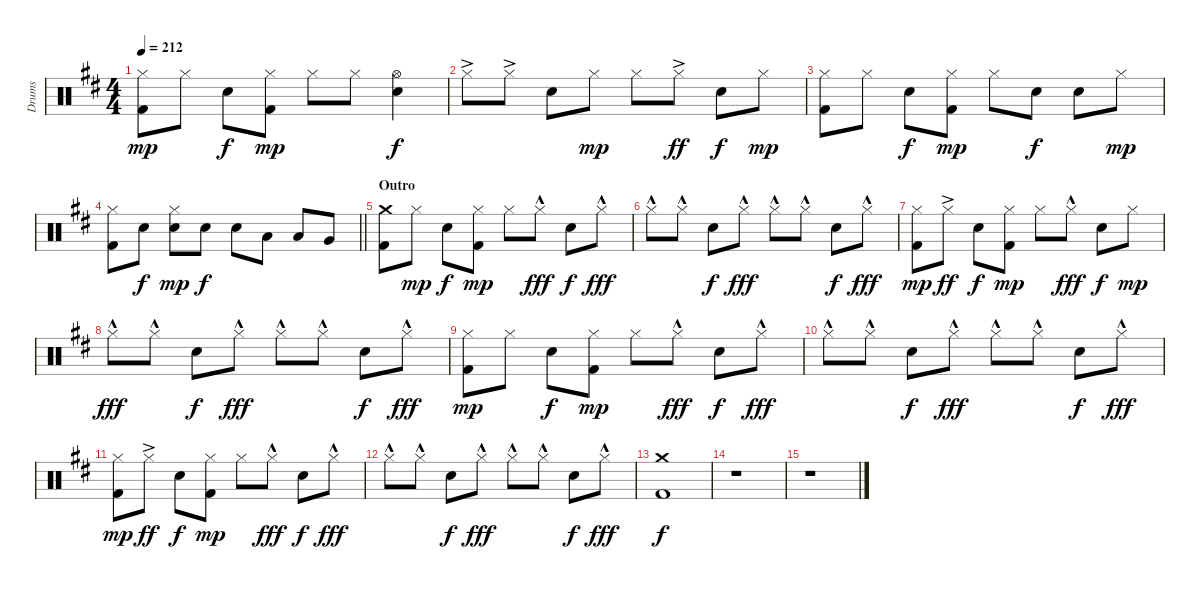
\track ("Drums" "Drums") {instrument percussion}
\staff {score}
\articulation defaults
\ts (4 4)
\tempo 212
\clef neutral
\ks d
("Hi-Hat (closed)" "Kick (hit) 2").8{dy mp} "Hi-Hat (closed)".8 "Electric Snare (hit)".8{dy f} ("Hi-Hat (closed)" "Kick (hit) 2").8{dy mp} "Hi-Hat (closed)".8 "Hi-Hat (closed)".8 ("Hi-Hat (open)" "Electric Snare (hit)").4{dy f} |
"Hi-Hat (closed)"{ac}.8 "Hi-Hat (closed)"{ac}.8 "Electric Snare (hit)".8 "Hi-Hat (closed)".8{dy mp} "Hi-Hat (closed)".8 "Hi-Hat (closed)"{ac}.8{dy ff} "Electric Snare (hit)".8{dy f} "Hi-Hat (closed)".8{dy mp} |
("Hi-Hat (closed)" "Kick (hit) 2").8 "Hi-Hat (closed)".8 "Electric Snare (hit)".8{dy f} ("Hi-Hat (closed)" "Kick (hit) 2").8{dy mp} "Hi-Hat (closed)".8 "Electric Snare (hit)".8{dy f} "Electric Snare (hit)".8 "Hi-Hat (closed)".8{dy mp} |
\barLineRight lightlight
("Hi-Hat (closed)" "Kick (hit) 2").8 "Electric Snare (hit)".8{dy f} ("Hi-Hat (closed)" "Electric Snare (hit)").8{dy mp} "Electric Snare (hit)".8{dy f} "Electric Snare (hit)".8 "Low Tom (hit)".8 "Low Tom (hit)".8 "Very Low Tom (hit)".8 |
\section ("" "Outro")
("Crash medium (hit)" "Kick (hit) 2").8 "Hi-Hat (closed)".8{dy mp} "Electric Snare (hit)".8{dy f} ("Hi-Hat (closed)" "Kick (hit) 2").8{dy mp} "Hi-Hat (closed)".8 "Hi-Hat (closed)"{hac}.8{dy fff} "Electric Snare (hit)".8{dy f} "Hi-Hat (closed)"{hac}.8{dy fff} |
"Hi-Hat (closed)"{hac}.8 "Hi-Hat (closed)"{hac}.8 "Electric Snare (hit)".8{dy f} "Hi-Hat (closed)"{hac}.8{dy fff} "Hi-Hat (closed)"{hac}.8 "Hi-Hat (closed)"{hac}.8 "Electric Snare (hit)".8{dy f} "Hi-Hat (closed)"{hac}.8{dy fff} |
("Hi-Hat (closed)" "Kick (hit) 2").8{dy mp} "Hi-Hat (closed)"{ac}.8{dy ff} "Electric Snare (hit)".8{dy f} ("Hi-Hat (closed)" "Kick (hit) 2").8{dy mp} "Hi-Hat (closed)".8 "Hi-Hat (closed)"{hac}.8{dy fff} "Electric Snare (hit)".8{dy f} "Hi-Hat (closed)".8{dy mp} |
"Hi-Hat (closed)"{hac}.8{dy fff} "Hi-Hat (closed)"{hac}.8 "Electric Snare (hit)".8{dy f} "Hi-Hat (closed)"{hac}.8{dy fff} "Hi-Hat (closed)"{hac}.8 "Hi-Hat (closed)"{hac}.8 "Electric Snare (hit)".8{dy f} "Hi-Hat (closed)"{hac}.8{dy fff} |
("Hi-Hat (closed)" "Kick (hit) 2").8{dy mp} "Hi-Hat (closed)".8 "Electric Snare (hit)".8{dy f} ("Hi-Hat (closed)" "Kick (hit) 2").8{dy mp} "Hi-Hat (closed)".8 "Hi-Hat (closed)"{hac}.8{dy fff} "Electric Snare (hit)".8{dy f} "Hi-Hat (closed)"{hac}.8{dy fff} |
"Hi-Hat (closed)"{hac}.8 "Hi-Hat (closed)"{hac}.8 "Electric Snare (hit)".8{dy f} "Hi-Hat (closed)"{hac}.8{dy fff} "Hi-Hat (closed)"{hac}.8 "Hi-Hat (closed)"{hac}.8 "Electric Snare (hit)".8{dy f} "Hi-Hat (closed)"{hac}.8{dy fff} |
("Hi-Hat (closed)" "Kick (hit) 2").8{dy mp} "Hi-Hat (closed)"{ac}.8{dy ff} "Electric Snare (hit)".8{dy f} ("Hi-Hat (closed)" "Kick (hit) 2").8{dy mp} "Hi-Hat (closed)".8 "Hi-Hat (closed)"{hac}.8{dy fff} "Electric Snare (hit)".8{dy f} "Hi-Hat (closed)"{hac}.8{dy fff} |
"Hi-Hat (closed)"{hac}.8 "Hi-Hat (closed)"{hac}.8 "Electric Snare (hit)".8{dy f} "Hi-Hat (closed)"{hac}.8{dy fff} "Hi-Hat (closed)"{hac}.8 "Hi-Hat (closed)"{hac}.8 "Electric Snare (hit)".8{dy f} "Hi-Hat (closed)"{hac}.8{dy fff} |
("Crash medium (hit)" "Kick (hit) 2").1{dy f} |
r.1 |
r.1
